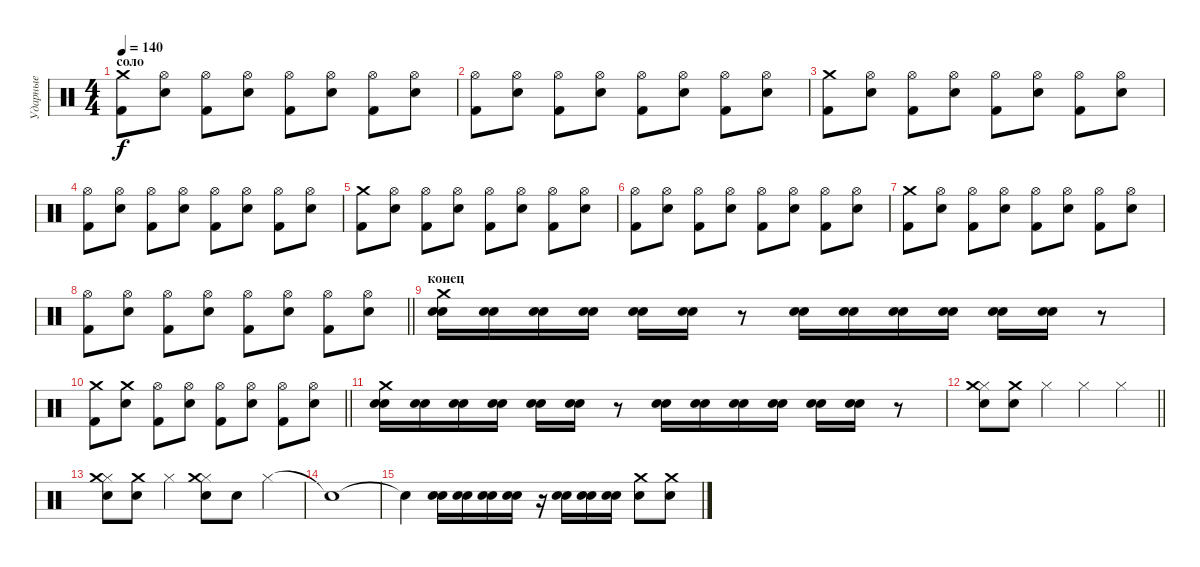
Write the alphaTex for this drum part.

\track ("Ударные" "Ударные") {instrument percussion}
\staff {score}
\articulation defaults
\ts (4 4)
\section ("" "соло")
\tempo 140
\clef neutral
\ks c
("Kick (hit) 2" "Crash medium (hit)").8{dy f} ("Electric Snare (hit)" "Hi-Hat (open)").8 ("Kick (hit) 2" "Hi-Hat (open)").8 ("Electric Snare (hit)" "Hi-Hat (open)").8 ("Kick (hit) 2" "Hi-Hat (open)").8 ("Electric Snare (hit)" "Hi-Hat (open)").8 ("Kick (hit) 2" "Hi-Hat (open)").8 ("Electric Snare (hit)" "Hi-Hat (open)").8 |
("Kick (hit) 2" "Hi-Hat (open)").8 ("Electric Snare (hit)" "Hi-Hat (open)").8 ("Kick (hit) 2" "Hi-Hat (open)").8 ("Electric Snare (hit)" "Hi-Hat (open)").8 ("Kick (hit) 2" "Hi-Hat (open)").8 ("Electric Snare (hit)" "Hi-Hat (open)").8 ("Kick (hit) 2" "Hi-Hat (open)").8 ("Electric Snare (hit)" "Hi-Hat (open)").8 |
("Kick (hit) 2" "Crash medium (hit)").8 ("Electric Snare (hit)" "Hi-Hat (open)").8 ("Kick (hit) 2" "Hi-Hat (open)").8 ("Electric Snare (hit)" "Hi-Hat (open)").8 ("Kick (hit) 2" "Hi-Hat (open)").8 ("Electric Snare (hit)" "Hi-Hat (open)").8 ("Kick (hit) 2" "Hi-Hat (open)").8 ("Electric Snare (hit)" "Hi-Hat (open)").8 |
("Kick (hit) 2" "Hi-Hat (open)").8 ("Electric Snare (hit)" "Hi-Hat (open)").8 ("Kick (hit) 2" "Hi-Hat (open)").8 ("Electric Snare (hit)" "Hi-Hat (open)").8 ("Kick (hit) 2" "Hi-Hat (open)").8 ("Electric Snare (hit)" "Hi-Hat (open)").8 ("Kick (hit) 2" "Hi-Hat (open)").8 ("Electric Snare (hit)" "Hi-Hat (open)").8 |
("Kick (hit) 2" "Crash medium (hit)").8 ("Electric Snare (hit)" "Hi-Hat (open)").8 ("Kick (hit) 2" "Hi-Hat (open)").8 ("Electric Snare (hit)" "Hi-Hat (open)").8 ("Kick (hit) 2" "Hi-Hat (open)").8 ("Electric Snare (hit)" "Hi-Hat (open)").8 ("Kick (hit) 2" "Hi-Hat (open)").8 ("Electric Snare (hit)" "Hi-Hat (open)").8 |
("Kick (hit) 2" "Hi-Hat (open)").8 ("Electric Snare (hit)" "Hi-Hat (open)").8 ("Kick (hit) 2" "Hi-Hat (open)").8 ("Electric Snare (hit)" "Hi-Hat (open)").8 ("Kick (hit) 2" "Hi-Hat (open)").8 ("Electric Snare (hit)" "Hi-Hat (open)").8 ("Kick (hit) 2" "Hi-Hat (open)").8 ("Electric Snare (hit)" "Hi-Hat (open)").8 |
("Kick (hit) 2" "Crash medium (hit)").8 ("Electric Snare (hit)" "Hi-Hat (open)").8 ("Kick (hit) 2" "Hi-Hat (open)").8 ("Electric Snare (hit)" "Hi-Hat (open)").8 ("Kick (hit) 2" "Hi-Hat (open)").8 ("Electric Snare (hit)" "Hi-Hat (open)").8 ("Kick (hit) 2" "Hi-Hat (open)").8 ("Electric Snare (hit)" "Hi-Hat (open)").8 |
\barLineRight lightlight
("Kick (hit) 2" "Hi-Hat (open)").8 ("Electric Snare (hit)" "Hi-Hat (open)").8 ("Kick (hit) 2" "Hi-Hat (open)").8 ("Electric Snare (hit)" "Hi-Hat (open)").8 ("Kick (hit) 2" "Hi-Hat (open)").8 ("Electric Snare (hit)" "Hi-Hat (open)").8 ("Kick (hit) 2" "Hi-Hat (open)").8 ("Electric Snare (hit)" "Hi-Hat (open)").8 |
\section ("" "конец")
("Electric Snare (hit)" "Snare (hit) 2" "Crash medium (hit)").16 ("Electric Snare (hit)" "Snare (hit) 2").16 ("Electric Snare (hit)" "Snare (hit) 2").16 ("Electric Snare (hit)" "Snare (hit) 2").16 ("Electric Snare (hit)" "Snare (hit) 2").16 ("Electric Snare (hit)" "Snare (hit) 2").16 r.8 ("Electric Snare (hit)" "Snare (hit) 2").16 ("Electric Snare (hit)" "Snare (hit) 2").16 ("Electric Snare (hit)" "Snare (hit) 2").16 ("Electric Snare (hit)" "Snare (hit) 2").16 ("Electric Snare (hit)" "Snare (hit) 2").16 ("Electric Snare (hit)" "Snare (hit) 2").16 r.8 |
\barLineRight lightlight
("Kick (hit) 2" "Crash medium (hit)").8 ("Electric Snare (hit)" "Crash medium (hit)").8 ("Kick (hit) 2" "Hi-Hat (open)").8 ("Electric Snare (hit)" "Hi-Hat (open)").8 ("Kick (hit) 2" "Hi-Hat (open)").8 ("Electric Snare (hit)" "Hi-Hat (open)").8 ("Kick (hit) 2" "Hi-Hat (open)").8 ("Electric Snare (hit)" "Hi-Hat (open)").8 |
("Electric Snare (hit)" "Snare (hit) 2" "Crash medium (hit)").16 ("Electric Snare (hit)" "Snare (hit) 2").16 ("Electric Snare (hit)" "Snare (hit) 2").16 ("Electric Snare (hit)" "Snare (hit) 2").16 ("Electric Snare (hit)" "Snare (hit) 2").16 ("Electric Snare (hit)" "Snare (hit) 2").16 r.8 ("Electric Snare (hit)" "Snare (hit) 2").16 ("Electric Snare (hit)" "Snare (hit) 2").16 ("Electric Snare (hit)" "Snare (hit) 2").16 ("Electric Snare (hit)" "Snare (hit) 2").16 ("Electric Snare (hit)" "Snare (hit) 2").16 ("Electric Snare (hit)" "Snare (hit) 2").16 r.8 |
\barLineRight lightlight
("Electric Snare (hit)" "Hi-Hat (closed)" "Crash medium (hit)").8 ("Electric Snare (hit)" "Crash medium (hit)").8 "Hi-Hat (closed)".4 "Hi-Hat (closed)".4 "Hi-Hat (closed)".4 |
("Electric Snare (hit)" "Hi-Hat (closed)" "Crash medium (hit)").8 ("Electric Snare (hit)" "Crash medium (hit)").8 "Hi-Hat (closed)".4 ("Electric Snare (hit)" "Hi-Hat (closed)" "Crash medium (hit)").8 "Electric Snare (hit)".8 "Hi-Hat (closed)".4 |
"Snare (hit)"{t}.1 |
"Snare (hit)"{t}.4 ("Electric Snare (hit)" "Snare (hit) 2").16 ("Electric Snare (hit)" "Snare (hit) 2").16 ("Electric Snare (hit)" "Snare (hit) 2").16 ("Electric Snare (hit)" "Snare (hit) 2").16 r.16 ("Electric Snare (hit)" "Snare (hit) 2").16 ("Electric Snare (hit)" "Snare (hit) 2").16 ("Electric Snare (hit)" "Snare (hit) 2").16 ("Electric Snare (hit)" "Crash medium (hit)").8 ("Electric Snare (hit)" "Crash medium (hit)").8
